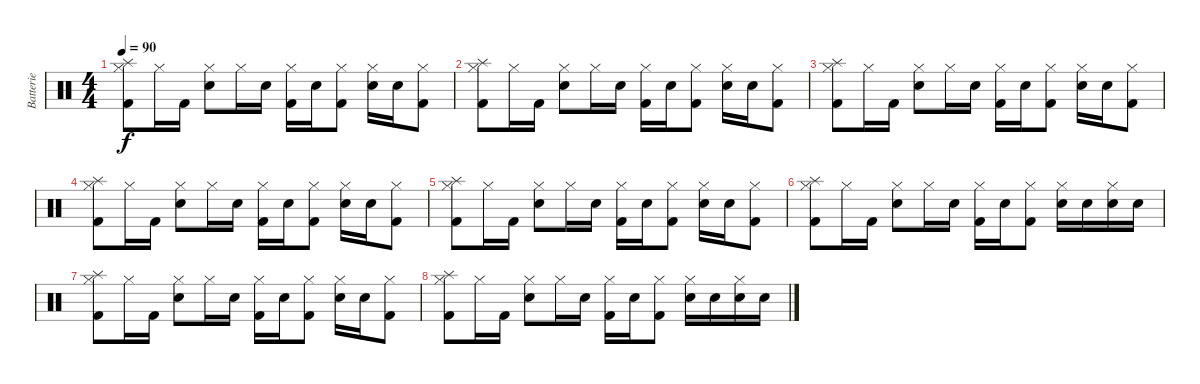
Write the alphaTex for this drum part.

\track ("Batterie" "Batterie") {instrument percussion}
\staff {score}
\articulation defaults
\ts (4 4)
\tempo 90
\clef neutral
\ks c
("Splash (hit)" "Hi-Hat (closed)" "Kick (hit) 2").8{dy f} "Hi-Hat (closed)".16 "Kick (hit) 2".16 ("Hi-Hat (closed)" "Snare (hit) 2").8 "Hi-Hat (closed)".16 "Snare (hit) 2".16 ("Hi-Hat (closed)" "Kick (hit) 2").16 "Snare (hit) 2".16 ("Hi-Hat (closed)" "Kick (hit) 2").8 ("Hi-Hat (closed)" "Snare (hit) 2").16 "Snare (hit) 2".16 ("Hi-Hat (closed)" "Kick (hit) 2").8 |
("Splash (hit)" "Hi-Hat (closed)" "Kick (hit) 2").8 "Hi-Hat (closed)".16 "Kick (hit) 2".16 ("Hi-Hat (closed)" "Snare (hit) 2").8 "Hi-Hat (closed)".16 "Snare (hit) 2".16 ("Hi-Hat (closed)" "Kick (hit) 2").16 "Snare (hit) 2".16 ("Hi-Hat (closed)" "Kick (hit) 2").8 ("Hi-Hat (closed)" "Snare (hit) 2").16 "Snare (hit) 2".16 ("Hi-Hat (closed)" "Kick (hit) 2").8 |
("Splash (hit)" "Hi-Hat (closed)" "Kick (hit) 2").8 "Hi-Hat (closed)".16 "Kick (hit) 2".16 ("Hi-Hat (closed)" "Snare (hit) 2").8 "Hi-Hat (closed)".16 "Snare (hit) 2".16 ("Hi-Hat (closed)" "Kick (hit) 2").16 "Snare (hit) 2".16 ("Hi-Hat (closed)" "Kick (hit) 2").8 ("Hi-Hat (closed)" "Snare (hit) 2").16 "Snare (hit) 2".16 ("Hi-Hat (closed)" "Kick (hit) 2").8 |
("Splash (hit)" "Hi-Hat (closed)" "Kick (hit) 2").8 "Hi-Hat (closed)".16 "Kick (hit) 2".16 ("Hi-Hat (closed)" "Snare (hit) 2").8 "Hi-Hat (closed)".16 "Snare (hit) 2".16 ("Hi-Hat (closed)" "Kick (hit) 2").16 "Snare (hit) 2".16 ("Hi-Hat (closed)" "Kick (hit) 2").8 ("Hi-Hat (closed)" "Snare (hit) 2").16 "Snare (hit) 2".16 ("Hi-Hat (closed)" "Kick (hit) 2").8 |
("Splash (hit)" "Hi-Hat (closed)" "Kick (hit) 2").8 "Hi-Hat (closed)".16 "Kick (hit) 2".16 ("Hi-Hat (closed)" "Snare (hit) 2").8 "Hi-Hat (closed)".16 "Snare (hit) 2".16 ("Hi-Hat (closed)" "Kick (hit) 2").16 "Snare (hit) 2".16 ("Hi-Hat (closed)" "Kick (hit) 2").8 ("Hi-Hat (closed)" "Snare (hit) 2").16 "Snare (hit) 2".16 ("Hi-Hat (closed)" "Kick (hit) 2").8 |
("Splash (hit)" "Hi-Hat (closed)" "Kick (hit) 2").8 "Hi-Hat (closed)".16 "Kick (hit) 2".16 ("Hi-Hat (closed)" "Snare (hit) 2").8 "Hi-Hat (closed)".16 "Snare (hit) 2".16 ("Hi-Hat (closed)" "Kick (hit) 2").16 "Snare (hit) 2".16 ("Hi-Hat (closed)" "Kick (hit) 2").8 ("Hi-Hat (closed)" "Snare (hit) 2").16 "Snare (hit) 2".16 ("Hi-Hat (closed)" "Snare (hit) 2").16 "Snare (hit) 2".16 |
("Splash (hit)" "Hi-Hat (closed)" "Kick (hit) 2").8 "Hi-Hat (closed)".16 "Kick (hit) 2".16 ("Hi-Hat (closed)" "Snare (hit) 2").8 "Hi-Hat (closed)".16 "Snare (hit) 2".16 ("Hi-Hat (closed)" "Kick (hit) 2").16 "Snare (hit) 2".16 ("Hi-Hat (closed)" "Kick (hit) 2").8 ("Hi-Hat (closed)" "Snare (hit) 2").16 "Snare (hit) 2".16 ("Hi-Hat (closed)" "Kick (hit) 2").8 |
("Splash (hit)" "Hi-Hat (closed)" "Kick (hit) 2").8 "Hi-Hat (closed)".16 "Kick (hit) 2".16 ("Hi-Hat (closed)" "Snare (hit) 2").8 "Hi-Hat (closed)".16 "Snare (hit) 2".16 ("Hi-Hat (closed)" "Kick (hit) 2").16 "Snare (hit) 2".16 ("Hi-Hat (closed)" "Kick (hit) 2").8 ("Hi-Hat (closed)" "Snare (hit) 2").16 "Snare (hit) 2".16 ("Hi-Hat (closed)" "Snare (hit) 2").16 "Snare (hit) 2".16
